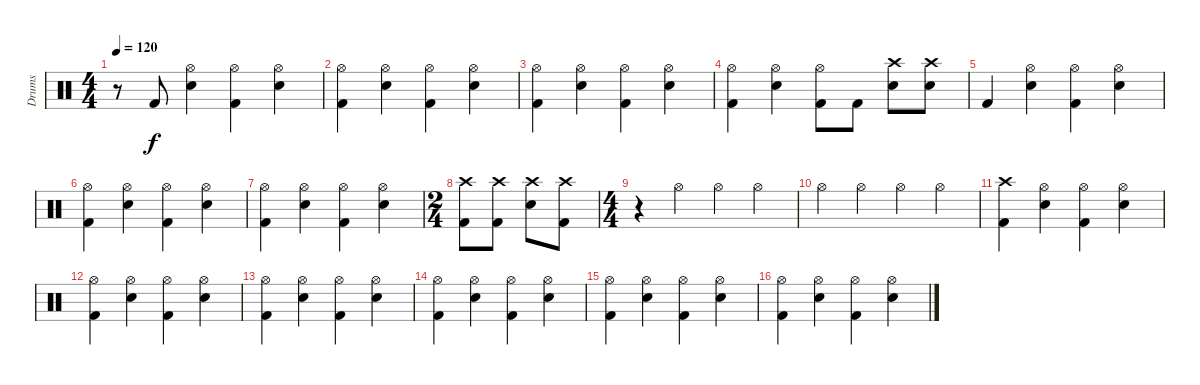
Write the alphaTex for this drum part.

\track ("Drums" "Drums") {instrument percussion}
\staff {score}
\articulation defaults
\ts (4 4)
\tempo 120
\clef neutral
\ks c
r.8{dy f} "Kick (hit) 2".8 ("Hi-Hat (open)" "Electric Snare (hit)").4 ("Hi-Hat (open)" "Kick (hit) 2").4 ("Hi-Hat (open)" "Electric Snare (hit)").4 |
("Hi-Hat (open)" "Kick (hit) 2").4 ("Hi-Hat (open)" "Electric Snare (hit)").4 ("Hi-Hat (open)" "Kick (hit) 2").4 ("Hi-Hat (open)" "Electric Snare (hit)").4 |
("Hi-Hat (open)" "Kick (hit) 2").4 ("Hi-Hat (open)" "Electric Snare (hit)").4 ("Hi-Hat (open)" "Kick (hit) 2").4 ("Hi-Hat (open)" "Electric Snare (hit)").4 |
("Hi-Hat (open)" "Kick (hit) 2").4 ("Hi-Hat (open)" "Electric Snare (hit)").4 ("Hi-Hat (open)" "Kick (hit) 2").8 "Kick (hit) 2".8 ("Crash high (hit)" "Electric Snare (hit)").8 ("Crash high (hit)" "Electric Snare (hit)").8 |
"Kick (hit) 2".4 ("Hi-Hat (open)" "Electric Snare (hit)").4 ("Hi-Hat (open)" "Kick (hit) 2").4 ("Hi-Hat (open)" "Electric Snare (hit)").4 |
("Hi-Hat (open)" "Kick (hit) 2").4 ("Hi-Hat (open)" "Electric Snare (hit)").4 ("Hi-Hat (open)" "Kick (hit) 2").4 ("Hi-Hat (open)" "Electric Snare (hit)").4 |
("Hi-Hat (open)" "Kick (hit) 2").4 ("Hi-Hat (open)" "Electric Snare (hit)").4 ("Hi-Hat (open)" "Kick (hit) 2").4 ("Hi-Hat (open)" "Electric Snare (hit)").4 |
\ts (2 4)
("Crash high (hit)" "Kick (hit) 2").8 ("Crash high (hit)" "Kick (hit) 2").8 ("Crash high (hit)" "Electric Snare (hit)").8 ("Crash high (hit)" "Kick (hit) 2").8 |
\ts (4 4)
r.4 "Hi-Hat (open)".4 "Hi-Hat (open)".4 "Hi-Hat (open)".4 |
"Hi-Hat (open)".4 "Hi-Hat (open)".4 "Hi-Hat (open)".4 "Hi-Hat (open)".4 |
("Crash high (hit)" "Kick (hit) 2").4 ("Hi-Hat (open)" "Electric Snare (hit)").4 ("Hi-Hat (open)" "Kick (hit) 2").4 ("Hi-Hat (open)" "Electric Snare (hit)").4 |
("Hi-Hat (open)" "Kick (hit) 2").4 ("Hi-Hat (open)" "Electric Snare (hit)").4 ("Hi-Hat (open)" "Kick (hit) 2").4 ("Hi-Hat (open)" "Electric Snare (hit)").4 |
("Hi-Hat (open)" "Kick (hit) 2").4 ("Hi-Hat (open)" "Electric Snare (hit)").4 ("Hi-Hat (open)" "Kick (hit) 2").4 ("Hi-Hat (open)" "Electric Snare (hit)").4 |
("Hi-Hat (open)" "Kick (hit) 2").4 ("Hi-Hat (open)" "Electric Snare (hit)").4 ("Hi-Hat (open)" "Kick (hit) 2").4 ("Hi-Hat (open)" "Electric Snare (hit)").4 |
("Hi-Hat (open)" "Kick (hit) 2").4 ("Hi-Hat (open)" "Electric Snare (hit)").4 ("Hi-Hat (open)" "Kick (hit) 2").4 ("Hi-Hat (open)" "Electric Snare (hit)").4 |
("Hi-Hat (open)" "Kick (hit) 2").4 ("Hi-Hat (open)" "Electric Snare (hit)").4 ("Hi-Hat (open)" "Kick (hit) 2").4 ("Hi-Hat (open)" "Electric Snare (hit)").4
